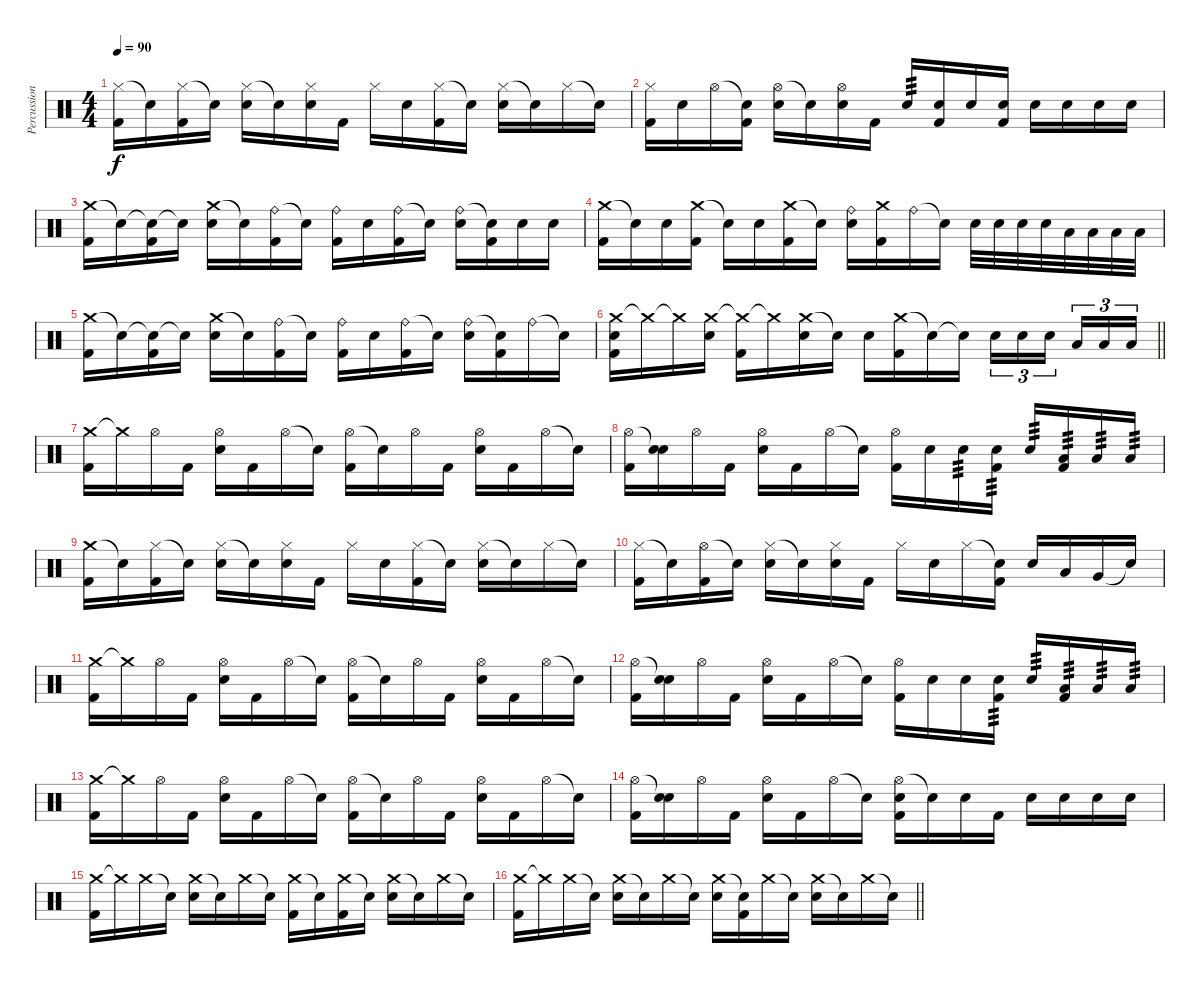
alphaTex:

\track ("Percussion" "Percussion") {instrument percussion}
\staff {score}
\articulation defaults
\ts (4 4)
\tempo 90
\clef neutral
\ks c
("Hi-Hat (closed)" "Kick (hit) 2").16{dy f} "Snare (hit)"{t}.16 ("Hi-Hat (closed)" "Kick (hit) 2").16 "Snare (hit)"{t}.16 ("Hi-Hat (closed)" "Snare (hit) 2").16 "Snare (hit)"{t}.16 ("Hi-Hat (closed)" "Snare (hit) 2").16 "Kick (hit) 2".16 "Hi-Hat (closed)".16 "Snare (hit) 2".16 ("Hi-Hat (closed)" "Kick (hit) 2").16 "Snare (hit)"{t}.16 ("Hi-Hat (closed)" "Snare (hit) 2").16 "Snare (hit)"{t}.16 "Hi-Hat (closed)".16 "Snare (hit)"{t}.16 |
("Hi-Hat (closed)" "Kick (hit) 2").16 "Snare (hit) 2".16 "Hi-Hat (open)".16 ("Snare (hit)"{t} "Kick (hit) 2").16 ("Hi-Hat (open)" "Snare (hit) 2").16 "Snare (hit)"{t}.16 ("Hi-Hat (open)" "Snare (hit) 2").16 "Kick (hit) 2".16 "Snare (hit) 2".16{tp 3} ("Snare (hit) 2" "Kick (hit) 2").16 "Snare (hit) 2".16 ("Snare (hit) 2" "Kick (hit) 2").16 "Snare (hit) 2".16 "Snare (hit) 2".16 "Snare (hit) 2".16 "Snare (hit) 2".16 |
("Crash medium (hit)" "Kick (hit) 2").16 "Snare (hit)"{t}.16 ("Snare (hit)"{t} "Kick (hit) 2").16 "Snare (hit)"{t}.16 ("Crash medium (hit)" "Snare (hit) 2").16 "Snare (hit)"{t}.16 ("Ride (bell)" "Kick (hit) 2").16 "Snare (hit)"{t}.16 ("Ride (bell)" "Kick (hit) 2").16 "Snare (hit) 2".16 ("Ride (bell)" "Kick (hit) 2").16 "Snare (hit)"{t}.16 ("Ride (bell)" "Snare (hit) 2").16 ("Snare (hit)"{t} "Kick (hit) 2").16 "Snare (hit) 2".16 "Snare (hit) 2".16 |
("Crash medium (hit)" "Kick (hit) 2").16 "Snare (hit)"{t}.16 "Snare (hit) 2".16 ("Crash medium (hit)" "Kick (hit) 2").16 "Snare (hit)"{t}.16 "Snare (hit) 2".16 ("Crash medium (hit)" "Kick (hit) 2").16 "Snare (hit)"{t}.16 ("Ride (bell)" "Snare (hit) 2").16 ("Crash medium (hit)" "Kick (hit) 2").16 "Ride (bell)".16 "Snare (hit)"{t}.16 "Snare (hit) 2".32 "Snare (hit) 2".32 "Snare (hit) 2".32 "Snare (hit) 2".32 "Low Tom (hit)".32 "Low Tom (hit)".32 "Low Tom (hit)".32 "Low Tom (hit)".32 |
("Crash medium (hit)" "Kick (hit) 2").16 "Snare (hit)"{t}.16 ("Snare (hit)"{t} "Kick (hit) 2").16 "Snare (hit)"{t}.16 ("Crash medium (hit)" "Snare (hit) 2").16 "Snare (hit)"{t}.16 ("Ride (bell)" "Kick (hit) 2").16 "Snare (hit)"{t}.16 ("Ride (bell)" "Kick (hit) 2").16 "Snare (hit) 2".16 ("Ride (bell)" "Kick (hit) 2").16 "Snare (hit)"{t}.16 ("Ride (bell)" "Snare (hit) 2").16 ("Snare (hit)"{t} "Kick (hit) 2").16 "Ride (bell)".16 "Snare (hit)"{t}.16 |
\barLineRight lightlight
("Crash medium (hit)" "Snare (hit) 2" "Kick (hit) 2").16 "Crash medium (hit)"{t}.16 "Crash medium (hit)"{t}.16 ("Crash medium (hit)" "Snare (hit) 2").16 ("Crash medium (hit)"{t} "Kick (hit) 2").16 "Crash medium (hit)"{t}.16 ("Crash medium (hit)" "Snare (hit) 2").16 "Snare (hit)"{t}.16 "Snare (hit) 2".16 ("Crash medium (hit)" "Kick (hit) 2").16 "Snare (hit)"{t}.16 "Snare (hit)"{t}.16 "Snare (hit) 2".16{tu (3 2)} "Snare (hit) 2".16{tu (3 2)} "Snare (hit) 2".16{tu (3 2) beam splitsecondary} "Low Tom (hit)".16{tu (3 2)} "Low Tom (hit)".16{tu (3 2)} "Low Tom (hit)".16{tu (3 2)} |
("Crash medium (hit)" "Kick (hit) 2").16 "Crash medium (hit)"{t}.16 "Hi-Hat (open)".16 "Kick (hit) 2".16 ("Hi-Hat (open)" "Snare (hit) 2").16 "Kick (hit) 2".16 "Hi-Hat (open)".16 "Snare (hit)"{t}.16 ("Hi-Hat (open)" "Kick (hit) 2").16 "Snare (hit)"{t}.16 "Hi-Hat (open)".16 "Kick (hit) 2".16 ("Hi-Hat (open)" "Snare (hit) 2").16 "Kick (hit) 2".16 "Hi-Hat (open)".16 "Snare (hit)"{t}.16 |
("Hi-Hat (open)" "Kick (hit) 2").16 ("Snare (hit)"{t} "Snare (hit) 2").16 "Hi-Hat (open)".16 "Kick (hit) 2".16 ("Hi-Hat (open)" "Snare (hit) 2").16 "Kick (hit) 2".16 "Hi-Hat (open)".16 "Snare (hit)"{t}.16 ("Hi-Hat (open)" "Kick (hit) 2").16 "Snare (hit) 2".16 "Snare (hit) 2".16{tp 3} ("Snare (hit) 2" "Kick (hit) 2").16{tp 3} "Snare (hit) 2".16{tp 3} ("Low Tom (hit)" "Kick (hit) 2").16{tp 3} "Low Tom (hit)".16{tp 3} "Low Tom (hit)".16{tp 3} |
("Crash medium (hit)" "Kick (hit) 2").16 "Snare (hit)"{t}.16 ("Hi-Hat (closed)" "Kick (hit) 2").16 "Snare (hit)"{t}.16 ("Hi-Hat (closed)" "Snare (hit) 2").16 "Snare (hit)"{t}.16 ("Hi-Hat (closed)" "Snare (hit) 2").16 "Kick (hit) 2".16 "Hi-Hat (closed)".16 "Snare (hit) 2".16 ("Hi-Hat (closed)" "Kick (hit) 2").16 "Snare (hit)"{t}.16 ("Hi-Hat (closed)" "Snare (hit) 2").16 "Snare (hit)"{t}.16 "Hi-Hat (closed)".16 "Snare (hit)"{t}.16 |
("Hi-Hat (closed)" "Kick (hit) 2").16 "Snare (hit)"{t}.16 ("Hi-Hat (open)" "Kick (hit) 2").16 "Snare (hit)"{t}.16 ("Hi-Hat (closed)" "Snare (hit) 2").16 "Snare (hit)"{t}.16 ("Hi-Hat (closed)" "Snare (hit) 2").16 "Kick (hit) 2".16 "Hi-Hat (closed)".16 "Snare (hit) 2".16 "Hi-Hat (closed)".16 ("Snare (hit)"{t} "Kick (hit) 2").16 "Snare (hit) 2".16 "Low Tom (hit)".16 "Very Low Tom (hit)".16 "Snare (hit)"{t}.16 |
("Crash medium (hit)" "Kick (hit) 2").16 "Crash medium (hit)"{t}.16 "Hi-Hat (open)".16 "Kick (hit) 2".16 ("Hi-Hat (open)" "Snare (hit) 2").16 "Kick (hit) 2".16 "Hi-Hat (open)".16 "Snare (hit)"{t}.16 ("Hi-Hat (open)" "Kick (hit) 2").16 "Snare (hit)"{t}.16 "Hi-Hat (open)".16 "Kick (hit) 2".16 ("Hi-Hat (open)" "Snare (hit) 2").16 "Kick (hit) 2".16 "Hi-Hat (open)".16 "Snare (hit)"{t}.16 |
("Hi-Hat (open)" "Kick (hit) 2").16 ("Snare (hit)"{t} "Snare (hit) 2").16 "Hi-Hat (open)".16 "Kick (hit) 2".16 ("Hi-Hat (open)" "Snare (hit) 2").16 "Kick (hit) 2".16 "Hi-Hat (open)".16 "Snare (hit)"{t}.16 ("Hi-Hat (open)" "Kick (hit) 2").16 "Snare (hit) 2".16 "Snare (hit) 2".16 ("Snare (hit) 2" "Kick (hit) 2").16{tp 3} "Snare (hit) 2".16{tp 3} ("Low Tom (hit)" "Kick (hit) 2").16{tp 3} "Low Tom (hit)".16{tp 3} "Low Tom (hit)".16{tp 3} |
("Crash medium (hit)" "Kick (hit) 2").16 "Crash medium (hit)"{t}.16 "Hi-Hat (open)".16 "Kick (hit) 2".16 ("Hi-Hat (open)" "Snare (hit) 2").16 "Kick (hit) 2".16 "Hi-Hat (open)".16 "Snare (hit)"{t}.16 ("Hi-Hat (open)" "Kick (hit) 2").16 "Snare (hit)"{t}.16 "Hi-Hat (open)".16 "Kick (hit) 2".16 ("Hi-Hat (open)" "Snare (hit) 2").16 "Kick (hit) 2".16 "Hi-Hat (open)".16 "Snare (hit)"{t}.16 |
("Hi-Hat (open)" "Kick (hit) 2").16 ("Snare (hit)"{t} "Snare (hit) 2").16 "Hi-Hat (open)".16 "Kick (hit) 2".16 ("Hi-Hat (open)" "Snare (hit) 2").16 "Kick (hit) 2".16 "Hi-Hat (open)".16 "Snare (hit)"{t}.16 ("Hi-Hat (open)" "Snare (hit) 2" "Kick (hit) 2").16 "Snare (hit)"{t}.16 "Snare (hit) 2".16 "Kick (hit) 2".16 "Snare (hit) 2".16 "Snare (hit) 2".16 "Snare (hit) 2".16 "Snare (hit) 2".16 |
("Crash medium (hit)" "Kick (hit) 2").16 "Crash medium (hit)"{t}.16 "Crash medium (hit)".16 "Snare (hit)"{t}.16 ("Crash medium (hit)" "Snare (hit) 2").16 "Snare (hit)"{t}.16 "Crash medium (hit)".16 "Snare (hit)"{t}.16 ("Crash medium (hit)" "Kick (hit) 2").16 "Snare (hit)"{t}.16 ("Crash medium (hit)" "Kick (hit) 2").16 "Snare (hit)"{t}.16 ("Crash medium (hit)" "Snare (hit) 2").16 "Snare (hit)"{t}.16 "Crash medium (hit)".16 "Snare (hit)"{t}.16 |
\barLineRight lightlight
("Crash medium (hit)" "Kick (hit) 2").16 "Crash medium (hit)"{t}.16 "Crash medium (hit)".16 "Snare (hit)"{t}.16 ("Crash medium (hit)" "Snare (hit) 2").16 "Snare (hit)"{t}.16 "Crash medium (hit)".16 "Snare (hit)"{t}.16 ("Crash medium (hit)" "Snare (hit) 2").16 ("Snare (hit)"{t} "Kick (hit) 2").16 "Crash medium (hit)".16 "Snare (hit)"{t}.16 ("Crash medium (hit)" "Snare (hit) 2").16 "Snare (hit)"{t}.16 "Crash medium (hit)".16 "Snare (hit)"{t}.16
